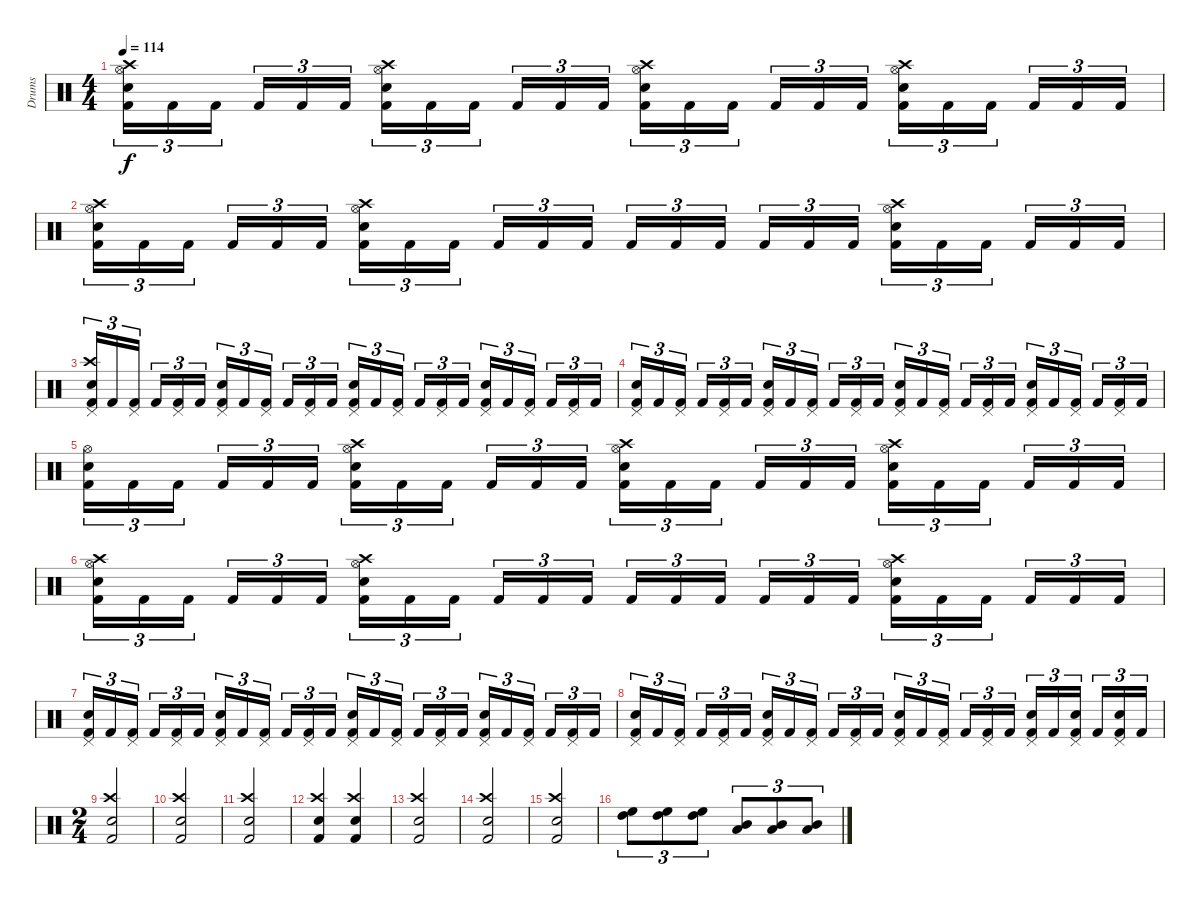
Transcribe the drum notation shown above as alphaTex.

\track ("Drums" "Drums") {instrument percussion}
\staff {score}
\articulation defaults
\ts (4 4)
\tempo 114
\clef neutral
\ks c
("Hi-Hat (open)" "Electric Snare (hit)" "Crash high (hit)" "Kick (hit) 2").16{tu (3 2) dy f} "Kick (hit) 2".16{tu (3 2)} "Kick (hit) 2".16{tu (3 2)} "Kick (hit) 2".16{tu (3 2)} "Kick (hit) 2".16{tu (3 2)} "Kick (hit) 2".16{tu (3 2)} ("Hi-Hat (open)" "Electric Snare (hit)" "Crash high (hit)" "Kick (hit) 2").16{tu (3 2)} "Kick (hit) 2".16{tu (3 2)} "Kick (hit) 2".16{tu (3 2)} "Kick (hit) 2".16{tu (3 2)} "Kick (hit) 2".16{tu (3 2)} "Kick (hit) 2".16{tu (3 2)} ("Hi-Hat (open)" "Electric Snare (hit)" "Crash high (hit)" "Kick (hit) 2").16{tu (3 2)} "Kick (hit) 2".16{tu (3 2)} "Kick (hit) 2".16{tu (3 2)} "Kick (hit) 2".16{tu (3 2)} "Kick (hit) 2".16{tu (3 2)} "Kick (hit) 2".16{tu (3 2)} ("Hi-Hat (open)" "Electric Snare (hit)" "Crash high (hit)" "Kick (hit) 2").16{tu (3 2)} "Kick (hit) 2".16{tu (3 2)} "Kick (hit) 2".16{tu (3 2)} "Kick (hit) 2".16{tu (3 2)} "Kick (hit) 2".16{tu (3 2)} "Kick (hit) 2".16{tu (3 2)} |
("Hi-Hat (open)" "Electric Snare (hit)" "Crash high (hit)" "Kick (hit) 2").16{tu (3 2)} "Kick (hit) 2".16{tu (3 2)} "Kick (hit) 2".16{tu (3 2)} "Kick (hit) 2".16{tu (3 2)} "Kick (hit) 2".16{tu (3 2)} "Kick (hit) 2".16{tu (3 2)} ("Hi-Hat (open)" "Electric Snare (hit)" "Crash high (hit)" "Kick (hit) 2").16{tu (3 2)} "Kick (hit) 2".16{tu (3 2)} "Kick (hit) 2".16{tu (3 2)} "Kick (hit) 2".16{tu (3 2)} "Kick (hit) 2".16{tu (3 2)} "Kick (hit) 2".16{tu (3 2)} "Kick (hit) 2".16{tu (3 2)} "Kick (hit) 2".16{tu (3 2)} "Kick (hit) 2".16{tu (3 2)} "Kick (hit) 2".16{tu (3 2)} "Kick (hit) 2".16{tu (3 2)} "Kick (hit) 2".16{tu (3 2)} ("Hi-Hat (open)" "Electric Snare (hit)" "Crash high (hit)" "Kick (hit) 2").16{tu (3 2)} "Kick (hit) 2".16{tu (3 2)} "Kick (hit) 2".16{tu (3 2)} "Kick (hit) 2".16{tu (3 2)} "Kick (hit) 2".16{tu (3 2)} "Kick (hit) 2".16{tu (3 2)} |
("Pedal Hi-Hat (hit)" "Electric Snare (hit)" "Crash high (hit)" "Kick (hit) 2").16{tu (3 2)} "Kick (hit) 2".16{tu (3 2)} ("Pedal Hi-Hat (hit)" "Kick (hit) 2").16{tu (3 2)} "Kick (hit) 2".16{tu (3 2)} ("Pedal Hi-Hat (hit)" "Kick (hit) 2").16{tu (3 2)} "Kick (hit) 2".16{tu (3 2)} ("Pedal Hi-Hat (hit)" "Electric Snare (hit)" "Kick (hit) 2").16{tu (3 2)} "Kick (hit) 2".16{tu (3 2)} ("Pedal Hi-Hat (hit)" "Kick (hit) 2").16{tu (3 2)} "Kick (hit) 2".16{tu (3 2)} ("Pedal Hi-Hat (hit)" "Kick (hit) 2").16{tu (3 2)} "Kick (hit) 2".16{tu (3 2)} ("Pedal Hi-Hat (hit)" "Electric Snare (hit)" "Kick (hit) 2").16{tu (3 2)} "Kick (hit) 2".16{tu (3 2)} ("Pedal Hi-Hat (hit)" "Kick (hit) 2").16{tu (3 2)} "Kick (hit) 2".16{tu (3 2)} ("Pedal Hi-Hat (hit)" "Kick (hit) 2").16{tu (3 2)} "Kick (hit) 2".16{tu (3 2)} ("Pedal Hi-Hat (hit)" "Electric Snare (hit)" "Kick (hit) 2").16{tu (3 2)} "Kick (hit) 2".16{tu (3 2)} ("Pedal Hi-Hat (hit)" "Kick (hit) 2").16{tu (3 2)} "Kick (hit) 2".16{tu (3 2)} ("Pedal Hi-Hat (hit)" "Kick (hit) 2").16{tu (3 2)} "Kick (hit) 2".16{tu (3 2)} |
("Pedal Hi-Hat (hit)" "Electric Snare (hit)" "Kick (hit) 2").16{tu (3 2)} "Kick (hit) 2".16{tu (3 2)} ("Pedal Hi-Hat (hit)" "Kick (hit) 2").16{tu (3 2)} "Kick (hit) 2".16{tu (3 2)} ("Pedal Hi-Hat (hit)" "Kick (hit) 2").16{tu (3 2)} "Kick (hit) 2".16{tu (3 2)} ("Pedal Hi-Hat (hit)" "Electric Snare (hit)" "Kick (hit) 2").16{tu (3 2)} "Kick (hit) 2".16{tu (3 2)} ("Pedal Hi-Hat (hit)" "Kick (hit) 2").16{tu (3 2)} "Kick (hit) 2".16{tu (3 2)} ("Pedal Hi-Hat (hit)" "Kick (hit) 2").16{tu (3 2)} "Kick (hit) 2".16{tu (3 2)} ("Pedal Hi-Hat (hit)" "Electric Snare (hit)" "Kick (hit) 2").16{tu (3 2)} "Kick (hit) 2".16{tu (3 2)} ("Pedal Hi-Hat (hit)" "Kick (hit) 2").16{tu (3 2)} "Kick (hit) 2".16{tu (3 2)} ("Pedal Hi-Hat (hit)" "Kick (hit) 2").16{tu (3 2)} "Kick (hit) 2".16{tu (3 2)} ("Pedal Hi-Hat (hit)" "Electric Snare (hit)" "Kick (hit) 2").16{tu (3 2)} "Kick (hit) 2".16{tu (3 2)} ("Pedal Hi-Hat (hit)" "Kick (hit) 2").16{tu (3 2)} "Kick (hit) 2".16{tu (3 2)} ("Pedal Hi-Hat (hit)" "Kick (hit) 2").16{tu (3 2)} "Kick (hit) 2".16{tu (3 2)} |
("Hi-Hat (open)" "Electric Snare (hit)" "Kick (hit) 2").16{tu (3 2)} "Kick (hit) 2".16{tu (3 2)} "Kick (hit) 2".16{tu (3 2)} "Kick (hit) 2".16{tu (3 2)} "Kick (hit) 2".16{tu (3 2)} "Kick (hit) 2".16{tu (3 2)} ("Hi-Hat (open)" "Electric Snare (hit)" "Crash high (hit)" "Kick (hit) 2").16{tu (3 2)} "Kick (hit) 2".16{tu (3 2)} "Kick (hit) 2".16{tu (3 2)} "Kick (hit) 2".16{tu (3 2)} "Kick (hit) 2".16{tu (3 2)} "Kick (hit) 2".16{tu (3 2)} ("Hi-Hat (open)" "Electric Snare (hit)" "Crash high (hit)" "Kick (hit) 2").16{tu (3 2)} "Kick (hit) 2".16{tu (3 2)} "Kick (hit) 2".16{tu (3 2)} "Kick (hit) 2".16{tu (3 2)} "Kick (hit) 2".16{tu (3 2)} "Kick (hit) 2".16{tu (3 2)} ("Hi-Hat (open)" "Electric Snare (hit)" "Crash high (hit)" "Kick (hit) 2").16{tu (3 2)} "Kick (hit) 2".16{tu (3 2)} "Kick (hit) 2".16{tu (3 2)} "Kick (hit) 2".16{tu (3 2)} "Kick (hit) 2".16{tu (3 2)} "Kick (hit) 2".16{tu (3 2)} |
("Hi-Hat (open)" "Electric Snare (hit)" "Crash high (hit)" "Kick (hit) 2").16{tu (3 2)} "Kick (hit) 2".16{tu (3 2)} "Kick (hit) 2".16{tu (3 2)} "Kick (hit) 2".16{tu (3 2)} "Kick (hit) 2".16{tu (3 2)} "Kick (hit) 2".16{tu (3 2)} ("Hi-Hat (open)" "Electric Snare (hit)" "Crash high (hit)" "Kick (hit) 2").16{tu (3 2)} "Kick (hit) 2".16{tu (3 2)} "Kick (hit) 2".16{tu (3 2)} "Kick (hit) 2".16{tu (3 2)} "Kick (hit) 2".16{tu (3 2)} "Kick (hit) 2".16{tu (3 2)} "Kick (hit) 2".16{tu (3 2)} "Kick (hit) 2".16{tu (3 2)} "Kick (hit) 2".16{tu (3 2)} "Kick (hit) 2".16{tu (3 2)} "Kick (hit) 2".16{tu (3 2)} "Kick (hit) 2".16{tu (3 2)} ("Hi-Hat (open)" "Electric Snare (hit)" "Crash high (hit)" "Kick (hit) 2").16{tu (3 2)} "Kick (hit) 2".16{tu (3 2)} "Kick (hit) 2".16{tu (3 2)} "Kick (hit) 2".16{tu (3 2)} "Kick (hit) 2".16{tu (3 2)} "Kick (hit) 2".16{tu (3 2)} |
("Pedal Hi-Hat (hit)" "Electric Snare (hit)" "Kick (hit) 2").16{tu (3 2)} "Kick (hit) 2".16{tu (3 2)} ("Pedal Hi-Hat (hit)" "Kick (hit) 2").16{tu (3 2)} "Kick (hit) 2".16{tu (3 2)} ("Pedal Hi-Hat (hit)" "Kick (hit) 2").16{tu (3 2)} "Kick (hit) 2".16{tu (3 2)} ("Pedal Hi-Hat (hit)" "Electric Snare (hit)" "Kick (hit) 2").16{tu (3 2)} "Kick (hit) 2".16{tu (3 2)} ("Pedal Hi-Hat (hit)" "Kick (hit) 2").16{tu (3 2)} "Kick (hit) 2".16{tu (3 2)} ("Pedal Hi-Hat (hit)" "Kick (hit) 2").16{tu (3 2)} "Kick (hit) 2".16{tu (3 2)} ("Pedal Hi-Hat (hit)" "Electric Snare (hit)" "Kick (hit) 2").16{tu (3 2)} "Kick (hit) 2".16{tu (3 2)} ("Pedal Hi-Hat (hit)" "Kick (hit) 2").16{tu (3 2)} "Kick (hit) 2".16{tu (3 2)} ("Pedal Hi-Hat (hit)" "Kick (hit) 2").16{tu (3 2)} "Kick (hit) 2".16{tu (3 2)} ("Pedal Hi-Hat (hit)" "Electric Snare (hit)" "Kick (hit) 2").16{tu (3 2)} "Kick (hit) 2".16{tu (3 2)} ("Pedal Hi-Hat (hit)" "Kick (hit) 2").16{tu (3 2)} "Kick (hit) 2".16{tu (3 2)} ("Pedal Hi-Hat (hit)" "Kick (hit) 2").16{tu (3 2)} "Kick (hit) 2".16{tu (3 2)} |
("Pedal Hi-Hat (hit)" "Electric Snare (hit)" "Kick (hit) 2").16{tu (3 2)} "Kick (hit) 2".16{tu (3 2)} ("Pedal Hi-Hat (hit)" "Kick (hit) 2").16{tu (3 2)} "Kick (hit) 2".16{tu (3 2)} ("Pedal Hi-Hat (hit)" "Kick (hit) 2").16{tu (3 2)} "Kick (hit) 2".16{tu (3 2)} ("Pedal Hi-Hat (hit)" "Electric Snare (hit)" "Kick (hit) 2").16{tu (3 2)} "Kick (hit) 2".16{tu (3 2)} ("Pedal Hi-Hat (hit)" "Kick (hit) 2").16{tu (3 2)} "Kick (hit) 2".16{tu (3 2)} ("Pedal Hi-Hat (hit)" "Kick (hit) 2").16{tu (3 2)} "Kick (hit) 2".16{tu (3 2)} ("Pedal Hi-Hat (hit)" "Electric Snare (hit)" "Kick (hit) 2").16{tu (3 2)} "Kick (hit) 2".16{tu (3 2)} ("Pedal Hi-Hat (hit)" "Kick (hit) 2").16{tu (3 2)} "Kick (hit) 2".16{tu (3 2)} ("Pedal Hi-Hat (hit)" "Kick (hit) 2").16{tu (3 2)} "Kick (hit) 2".16{tu (3 2)} ("Pedal Hi-Hat (hit)" "Electric Snare (hit)" "Kick (hit) 2").16{tu (3 2)} "Kick (hit) 2".16{tu (3 2)} ("Pedal Hi-Hat (hit)" "Electric Snare (hit)" "Kick (hit) 2").16{tu (3 2)} "Kick (hit) 2".16{tu (3 2)} ("Pedal Hi-Hat (hit)" "Electric Snare (hit)" "Kick (hit) 2").16{tu (3 2)} "Kick (hit) 2".16{tu (3 2)} |
\ts (2 4)
("Crash high (hit)" "Electric Snare (hit)" "Kick (hit) 2").2 |
("Crash high (hit)" "Electric Snare (hit)" "Kick (hit) 2").2 |
("Crash high (hit)" "Electric Snare (hit)" "Kick (hit) 2").2 |
("Crash high (hit)" "Electric Snare (hit)" "Kick (hit) 2").4 ("Crash high (hit)" "Electric Snare (hit)" "Kick (hit) 2").4 |
("Crash high (hit)" "Electric Snare (hit)" "Kick (hit) 2").2 |
("Crash high (hit)" "Electric Snare (hit)" "Kick (hit) 2").2 |
("Crash high (hit)" "Electric Snare (hit)" "Kick (hit) 2").2 |
("High Tom (hit)" "High Floor Tom (hit)").8{tu (3 2)} ("High Tom (hit)" "High Floor Tom (hit)").8{tu (3 2)} ("High Tom (hit)" "High Floor Tom (hit)").8{tu (3 2)} ("Low Tom (hit)" "Mid Tom (hit)").8{tu (3 2)} ("Low Tom (hit)" "Mid Tom (hit)").8{tu (3 2)} ("Low Tom (hit)" "Mid Tom (hit)").8{tu (3 2)}
